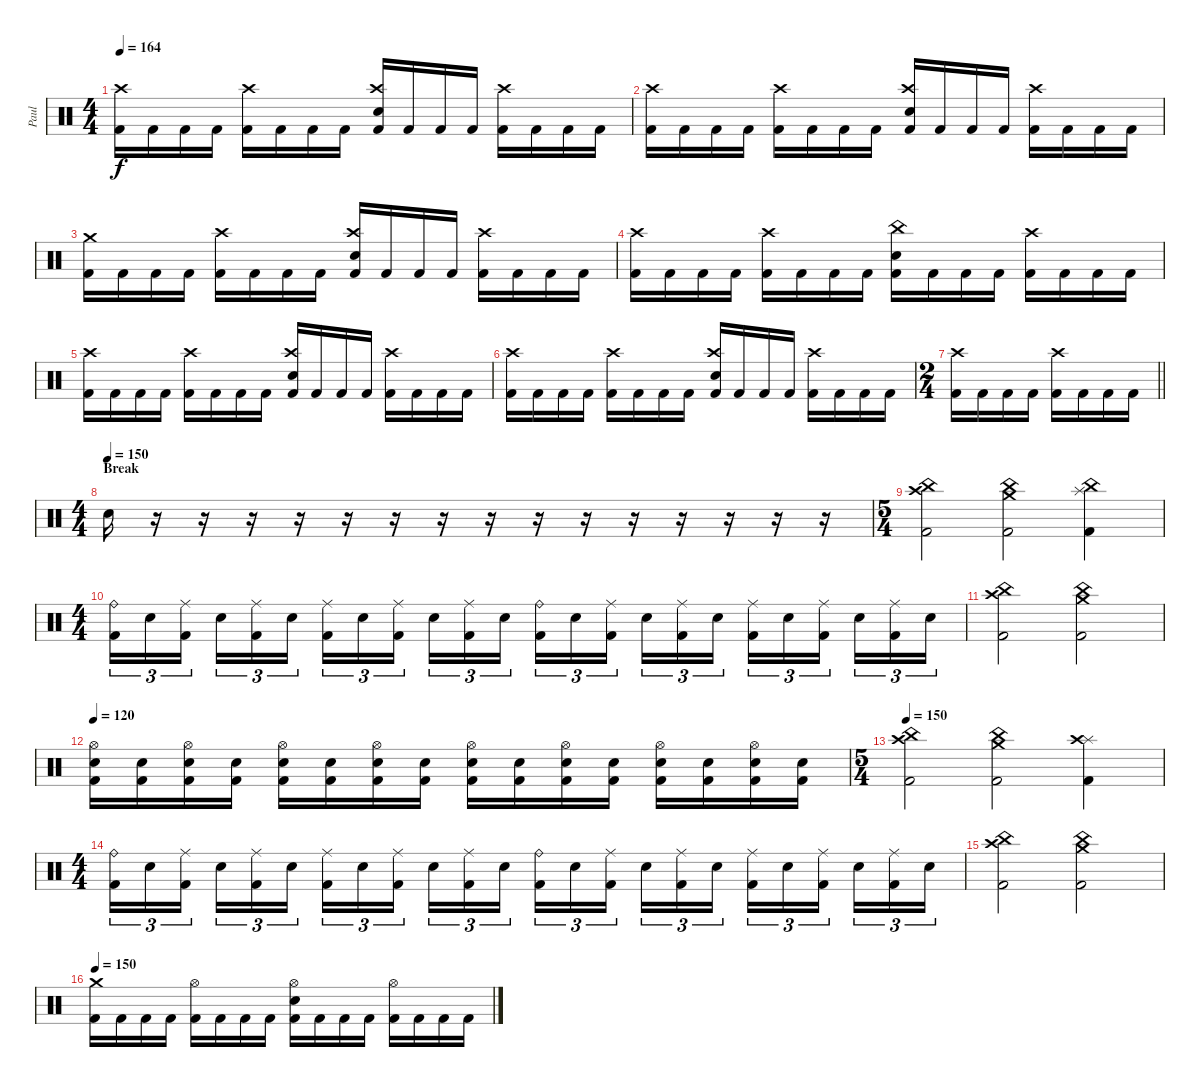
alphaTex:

\track ("Paul " "Paul ") {instrument percussion}
\staff {score}
\articulation defaults
\ts (4 4)
\tempo 164
\clef neutral
\ks c
("Kick (hit) 2" "Crash high (hit)").16{dy f} "Kick (hit) 2".16 "Kick (hit) 2".16 "Kick (hit) 2".16 ("Kick (hit) 2" "Crash high (hit)").16 "Kick (hit) 2".16 "Kick (hit) 2".16 "Kick (hit) 2".16 ("Kick (hit) 2" "Electric Snare (hit)" "Crash high (hit)").16 "Kick (hit) 2".16 "Kick (hit) 2".16 "Kick (hit) 2".16 ("Kick (hit) 2" "Crash high (hit)").16 "Kick (hit) 2".16 "Kick (hit) 2".16 "Kick (hit) 2".16 |
("Kick (hit) 2" "Crash high (hit)").16 "Kick (hit) 2".16 "Kick (hit) 2".16 "Kick (hit) 2".16 ("Kick (hit) 2" "Crash high (hit)").16 "Kick (hit) 2".16 "Kick (hit) 2".16 "Kick (hit) 2".16 ("Kick (hit) 2" "Electric Snare (hit)" "Crash high (hit)").16 "Kick (hit) 2".16 "Kick (hit) 2".16 "Kick (hit) 2".16 ("Kick (hit) 2" "Crash high (hit)").16 "Kick (hit) 2".16 "Kick (hit) 2".16 "Kick (hit) 2".16 |
("Kick (hit) 2" "Crash medium (hit)").16 "Kick (hit) 2".16 "Kick (hit) 2".16 "Kick (hit) 2".16 ("Kick (hit) 2" "Crash high (hit)").16 "Kick (hit) 2".16 "Kick (hit) 2".16 "Kick (hit) 2".16 ("Kick (hit) 2" "Electric Snare (hit)" "Crash high (hit)").16 "Kick (hit) 2".16 "Kick (hit) 2".16 "Kick (hit) 2".16 ("Kick (hit) 2" "Crash high (hit)").16 "Kick (hit) 2".16 "Kick (hit) 2".16 "Kick (hit) 2".16 |
("Kick (hit) 2" "Crash high (hit)").16 "Kick (hit) 2".16 "Kick (hit) 2".16 "Kick (hit) 2".16 ("Kick (hit) 2" "Crash high (hit)").16 "Kick (hit) 2".16 "Kick (hit) 2".16 "Kick (hit) 2".16 ("Kick (hit) 2" "Electric Snare (hit)" "China (hit)").16 "Kick (hit) 2".16 "Kick (hit) 2".16 "Kick (hit) 2".16 ("Kick (hit) 2" "Crash high (hit)").16 "Kick (hit) 2".16 "Kick (hit) 2".16 "Kick (hit) 2".16 |
("Kick (hit) 2" "Crash high (hit)").16 "Kick (hit) 2".16 "Kick (hit) 2".16 "Kick (hit) 2".16 ("Kick (hit) 2" "Crash high (hit)").16 "Kick (hit) 2".16 "Kick (hit) 2".16 "Kick (hit) 2".16 ("Kick (hit) 2" "Electric Snare (hit)" "Crash high (hit)").16 "Kick (hit) 2".16 "Kick (hit) 2".16 "Kick (hit) 2".16 ("Kick (hit) 2" "Crash high (hit)").16 "Kick (hit) 2".16 "Kick (hit) 2".16 "Kick (hit) 2".16 |
("Kick (hit) 2" "Crash high (hit)").16 "Kick (hit) 2".16 "Kick (hit) 2".16 "Kick (hit) 2".16 ("Kick (hit) 2" "Crash high (hit)").16 "Kick (hit) 2".16 "Kick (hit) 2".16 "Kick (hit) 2".16 ("Kick (hit) 2" "Electric Snare (hit)" "Crash high (hit)").16 "Kick (hit) 2".16 "Kick (hit) 2".16 "Kick (hit) 2".16 ("Kick (hit) 2" "Crash high (hit)").16 "Kick (hit) 2".16 "Kick (hit) 2".16 "Kick (hit) 2".16 |
\ts (2 4)
\barLineRight lightlight
("Kick (hit) 2" "Crash high (hit)").16 "Kick (hit) 2".16 "Kick (hit) 2".16 "Kick (hit) 2".16 ("Kick (hit) 2" "Crash high (hit)").16 "Kick (hit) 2".16 "Kick (hit) 2".16 "Kick (hit) 2".16 |
\ts (4 4)
\section ("" "Break")
\tempo (150)
"Electric Snare (hit)".16 r.16 r.16 r.16 r.16 r.16 r.16 r.16 r.16 r.16 r.16 r.16 r.16 r.16 r.16 r.16 |
\ts (5 4)
("Kick (hit) 2" "Crash high (hit)" "China (hit)").2 ("Kick (hit) 2" "Crash medium (hit)" "China (hit)").2 ("Kick (hit) 2" "Splash (hit)" "China (hit)").4 |
\ts (4 4)
("Kick (hit) 2" "Ride (bell)").16{tu (3 2)} "Electric Snare (hit)".16{tu (3 2)} ("Kick (hit) 2" "Ride (middle)").16{tu (3 2) beam splitsecondary} "Electric Snare (hit)".16{tu (3 2)} ("Kick (hit) 2" "Ride (middle)").16{tu (3 2)} "Electric Snare (hit)".16{tu (3 2)} ("Kick (hit) 2" "Ride (middle)").16{tu (3 2)} "Electric Snare (hit)".16{tu (3 2)} ("Kick (hit) 2" "Ride (middle)").16{tu (3 2) beam splitsecondary} "Electric Snare (hit)".16{tu (3 2)} ("Kick (hit) 2" "Ride (middle)").16{tu (3 2)} "Electric Snare (hit)".16{tu (3 2)} ("Kick (hit) 2" "Ride (bell)").16{tu (3 2)} "Electric Snare (hit)".16{tu (3 2)} ("Kick (hit) 2" "Ride (middle)").16{tu (3 2) beam splitsecondary} "Electric Snare (hit)".16{tu (3 2)} ("Kick (hit) 2" "Ride (middle)").16{tu (3 2)} "Electric Snare (hit)".16{tu (3 2)} ("Kick (hit) 2" "Ride (middle)").16{tu (3 2)} "Electric Snare (hit)".16{tu (3 2)} ("Kick (hit) 2" "Ride (middle)").16{tu (3 2) beam splitsecondary} "Electric Snare (hit)".16{tu (3 2)} ("Kick (hit) 2" "Ride (middle)").16{tu (3 2)} "Electric Snare (hit)".16{tu (3 2)} |
("Kick (hit) 2" "Crash high (hit)" "China (hit)").2 ("Kick (hit) 2" "Crash medium (hit)" "China (hit)").2 |
\tempo 120
("Kick (hit) 2" "Electric Snare (hit)" "Hi-Hat (open)").16 ("Kick (hit) 2" "Electric Snare (hit)").16 ("Kick (hit) 2" "Electric Snare (hit)" "Hi-Hat (open)").16 ("Kick (hit) 2" "Electric Snare (hit)").16 ("Kick (hit) 2" "Electric Snare (hit)" "Hi-Hat (open)").16 ("Kick (hit) 2" "Electric Snare (hit)").16 ("Kick (hit) 2" "Electric Snare (hit)" "Hi-Hat (open)").16 ("Kick (hit) 2" "Electric Snare (hit)").16 ("Kick (hit) 2" "Electric Snare (hit)" "Hi-Hat (open)").16 ("Kick (hit) 2" "Electric Snare (hit)").16 ("Kick (hit) 2" "Electric Snare (hit)" "Hi-Hat (open)").16 ("Kick (hit) 2" "Electric Snare (hit)").16 ("Kick (hit) 2" "Electric Snare (hit)" "Hi-Hat (open)").16 ("Kick (hit) 2" "Electric Snare (hit)").16 ("Kick (hit) 2" "Electric Snare (hit)" "Hi-Hat (open)").16 ("Kick (hit) 2" "Electric Snare (hit)").16 |
\ts (5 4)
\tempo 150
("Kick (hit) 2" "Crash high (hit)" "China (hit)").2 ("Kick (hit) 2" "Crash medium (hit)" "China (hit)").2 ("Kick (hit) 2" "Splash (hit)" "Crash high (hit)").4 |
\ts (4 4)
("Kick (hit) 2" "Ride (bell)").16{tu (3 2)} "Electric Snare (hit)".16{tu (3 2)} ("Kick (hit) 2" "Ride (middle)").16{tu (3 2) beam splitsecondary} "Electric Snare (hit)".16{tu (3 2)} ("Kick (hit) 2" "Ride (middle)").16{tu (3 2)} "Electric Snare (hit)".16{tu (3 2)} ("Kick (hit) 2" "Ride (middle)").16{tu (3 2)} "Electric Snare (hit)".16{tu (3 2)} ("Kick (hit) 2" "Ride (middle)").16{tu (3 2) beam splitsecondary} "Electric Snare (hit)".16{tu (3 2)} ("Kick (hit) 2" "Ride (middle)").16{tu (3 2)} "Electric Snare (hit)".16{tu (3 2)} ("Kick (hit) 2" "Ride (bell)").16{tu (3 2)} "Electric Snare (hit)".16{tu (3 2)} ("Kick (hit) 2" "Ride (middle)").16{tu (3 2) beam splitsecondary} "Electric Snare (hit)".16{tu (3 2)} ("Kick (hit) 2" "Ride (middle)").16{tu (3 2)} "Electric Snare (hit)".16{tu (3 2)} ("Kick (hit) 2" "Ride (middle)").16{tu (3 2)} "Electric Snare (hit)".16{tu (3 2)} ("Kick (hit) 2" "Ride (middle)").16{tu (3 2) beam splitsecondary} "Electric Snare (hit)".16{tu (3 2)} ("Kick (hit) 2" "Ride (middle)").16{tu (3 2)} "Electric Snare (hit)".16{tu (3 2)} |
("Kick (hit) 2" "Crash high (hit)" "China (hit)").2 ("Kick (hit) 2" "Crash medium (hit)" "China (hit)").2 |
\tempo 150
("Kick (hit) 2" "Crash medium (hit)").16 "Kick (hit) 2".16 "Kick (hit) 2".16 "Kick (hit) 2".16 ("Kick (hit) 2" "Hi-Hat (open)").16 "Kick (hit) 2".16 "Kick (hit) 2".16 "Kick (hit) 2".16 ("Kick (hit) 2" "Electric Snare (hit)" "Hi-Hat (open)").16 "Kick (hit) 2".16 "Kick (hit) 2".16 "Kick (hit) 2".16 ("Kick (hit) 2" "Hi-Hat (open)").16 "Kick (hit) 2".16 "Kick (hit) 2".16 "Kick (hit) 2".16
